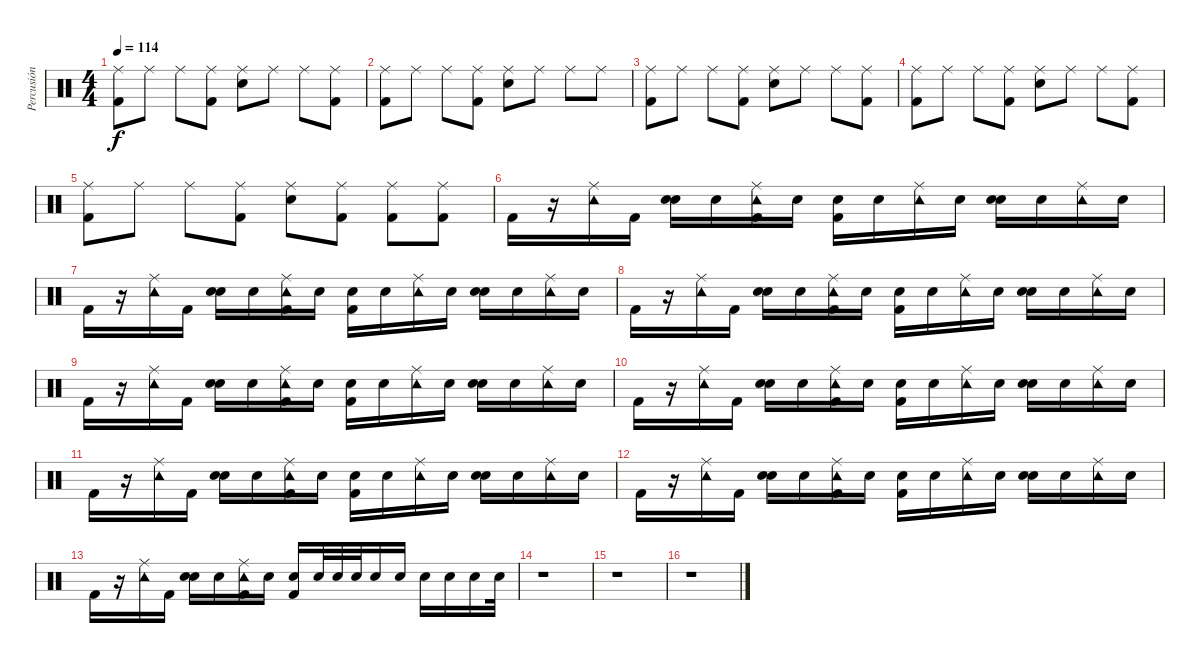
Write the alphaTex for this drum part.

\track ("Percusión" "Percusión") {instrument percussion}
\staff {score}
\articulation defaults
\ts (4 4)
\tempo 114
\clef neutral
\ks c
("Ride (middle)" "Kick (hit) 2").8{dy f} "Ride (middle)".8 "Ride (middle)".8 ("Ride (middle)" "Kick (hit) 2").8 ("Ride (middle)" "Snare (hit) 2").8 "Ride (middle)".8 "Ride (middle)".8 ("Ride (middle)" "Kick (hit) 2").8 |
("Ride (middle)" "Kick (hit) 2").8 "Ride (middle)".8 "Ride (middle)".8 ("Ride (middle)" "Kick (hit) 2").8 ("Ride (middle)" "Snare (hit) 2").8 "Ride (middle)".8 "Ride (middle)".8 "Ride (middle)".8 |
("Ride (middle)" "Kick (hit) 2").8 "Ride (middle)".8 "Ride (middle)".8 ("Ride (middle)" "Kick (hit) 2").8 ("Ride (middle)" "Snare (hit) 2").8 "Ride (middle)".8 "Ride (middle)".8 ("Ride (middle)" "Kick (hit) 2").8 |
("Ride (middle)" "Kick (hit) 2").8 "Ride (middle)".8 "Ride (middle)".8 ("Ride (middle)" "Kick (hit) 2").8 ("Ride (middle)" "Snare (hit) 2").8 "Ride (middle)".8 "Ride (middle)".8 ("Ride (middle)" "Kick (hit) 2").8 |
("Ride (middle)" "Kick (hit) 2").8 "Ride (middle)".8 "Ride (middle)".8 ("Ride (middle)" "Kick (hit) 2").8 ("Ride (middle)" "Snare (hit) 2").8 ("Ride (middle)" "Kick (hit) 2").8 ("Ride (middle)" "Kick (hit) 2").8 ("Ride (middle)" "Kick (hit) 2").8 |
"Kick (hit) 2".16 r.16 ("Ride (middle)" "Tambourine (hit)").16 "Kick (hit) 2".16 ("Snare (hit)" "Snare (hit) 2").16 "Snare (hit)".16 ("Ride (middle)" "Tambourine (hit)" "Kick (hit) 2").16 "Snare (hit)".16 ("Snare (hit)" "Kick (hit) 2").16 "Snare (hit)".16 ("Ride (middle)" "Tambourine (hit)").16 "Snare (hit)".16 ("Snare (hit)" "Snare (hit) 2").16 "Snare (hit)".16 ("Ride (middle)" "Tambourine (hit)").16 "Snare (hit)".16 |
"Kick (hit) 2".16 r.16 ("Ride (middle)" "Tambourine (hit)").16 "Kick (hit) 2".16 ("Snare (hit)" "Snare (hit) 2").16 "Snare (hit)".16 ("Ride (middle)" "Tambourine (hit)" "Kick (hit) 2").16 "Snare (hit)".16 ("Snare (hit)" "Kick (hit) 2").16 "Snare (hit)".16 ("Ride (middle)" "Tambourine (hit)").16 "Snare (hit)".16 ("Snare (hit)" "Snare (hit) 2").16 "Snare (hit)".16 ("Ride (middle)" "Tambourine (hit)").16 "Snare (hit)".16 |
"Kick (hit) 2".16 r.16 ("Ride (middle)" "Tambourine (hit)").16 "Kick (hit) 2".16 ("Snare (hit)" "Snare (hit) 2").16 "Snare (hit)".16 ("Ride (middle)" "Tambourine (hit)" "Kick (hit) 2").16 "Snare (hit)".16 ("Snare (hit)" "Kick (hit) 2").16 "Snare (hit)".16 ("Ride (middle)" "Tambourine (hit)").16 "Snare (hit)".16 ("Snare (hit)" "Snare (hit) 2").16 "Snare (hit)".16 ("Ride (middle)" "Tambourine (hit)").16 "Snare (hit)".16 |
"Kick (hit) 2".16 r.16 ("Ride (middle)" "Tambourine (hit)").16 "Kick (hit) 2".16 ("Snare (hit)" "Snare (hit) 2").16 "Snare (hit)".16 ("Ride (middle)" "Tambourine (hit)" "Kick (hit) 2").16 "Snare (hit)".16 ("Snare (hit)" "Kick (hit) 2").16 "Snare (hit)".16 ("Ride (middle)" "Tambourine (hit)").16 "Snare (hit)".16 ("Snare (hit)" "Snare (hit) 2").16 "Snare (hit)".16 ("Ride (middle)" "Tambourine (hit)").16 "Snare (hit)".16 |
"Kick (hit) 2".16 r.16 ("Ride (middle)" "Tambourine (hit)").16 "Kick (hit) 2".16 ("Snare (hit)" "Snare (hit) 2").16 "Snare (hit)".16 ("Ride (middle)" "Tambourine (hit)" "Kick (hit) 2").16 "Snare (hit)".16 ("Snare (hit)" "Kick (hit) 2").16 "Snare (hit)".16 ("Ride (middle)" "Tambourine (hit)").16 "Snare (hit)".16 ("Snare (hit)" "Snare (hit) 2").16 "Snare (hit)".16 ("Ride (middle)" "Tambourine (hit)").16 "Snare (hit)".16 |
"Kick (hit) 2".16 r.16 ("Ride (middle)" "Tambourine (hit)").16 "Kick (hit) 2".16 ("Snare (hit)" "Snare (hit) 2").16 "Snare (hit)".16 ("Ride (middle)" "Tambourine (hit)" "Kick (hit) 2").16 "Snare (hit)".16 ("Snare (hit)" "Kick (hit) 2").16 "Snare (hit)".16 ("Ride (middle)" "Tambourine (hit)").16 "Snare (hit)".16 ("Snare (hit)" "Snare (hit) 2").16 "Snare (hit)".16 ("Ride (middle)" "Tambourine (hit)").16 "Snare (hit)".16 |
"Kick (hit) 2".16 r.16 ("Ride (middle)" "Tambourine (hit)").16 "Kick (hit) 2".16 ("Snare (hit)" "Snare (hit) 2").16 "Snare (hit)".16 ("Ride (middle)" "Tambourine (hit)" "Kick (hit) 2").16 "Snare (hit)".16 ("Snare (hit)" "Kick (hit) 2").16 "Snare (hit)".16 ("Ride (middle)" "Tambourine (hit)").16 "Snare (hit)".16 ("Snare (hit)" "Snare (hit) 2").16 "Snare (hit)".16 ("Ride (middle)" "Tambourine (hit)").16 "Snare (hit)".16 |
"Kick (hit) 2".16 r.16 ("Ride (middle)" "Tambourine (hit)").16 "Kick (hit) 2".16 ("Snare (hit)" "Snare (hit) 2").16 "Snare (hit)".16 ("Ride (middle)" "Tambourine (hit)" "Kick (hit) 2").16 "Snare (hit)".16 ("Snare (hit)" "Kick (hit) 2").16 "Snare (hit) 2".32 "Snare (hit) 2".32 "Snare (hit) 2".32 "Snare (hit) 2".16 "Snare (hit) 2".16 "Snare (hit) 2".16 "Snare (hit) 2".16 "Snare (hit) 2".16 "Snare (hit) 2".32 |
r.1 |
r.1 |
r.1
